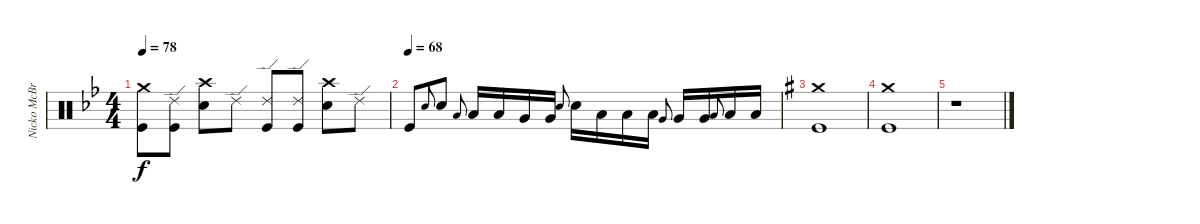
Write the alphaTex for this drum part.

\track ("Nicko McBrain (Drums)" "Nicko McBr") {instrument percussion}
\staff {score}
\articulation defaults
\ts (4 4)
\tempo 78
\clef neutral
\ks gminor
("Crash medium (hit)" "Kick (hit)").8{dy f} ("Ride (edge) 2" "Kick (hit)").8 ("Crash high (hit)" "Snare (hit) 2").8 "Ride (edge) 2".8 ("Ride (edge) 2" "Kick (hit)").8 ("Ride (edge) 2" "Kick (hit)").8 ("Crash high (hit)" "Snare (hit) 2").8 "Ride (edge) 2".8 |
\tempo (68)
"Kick (hit)".8 "Snare (hit) 2".8{gr onbeat} "Snare (hit) 2".8 "Low Tom (hit)".8{gr onbeat} "Low Tom (hit)".16 "Low Tom (hit)".16 "Very Low Tom (hit)".16 "Very Low Tom (hit)".16 "Snare (hit) 2".8{gr onbeat} "Snare (hit) 2".16 "Low Tom (hit)".16 "Low Tom (hit)".16 "Low Tom (hit)".16 "Very Low Tom (hit)".8{gr onbeat} "Very Low Tom (hit)".16 "Very Low Tom (hit)".16 "Low Floor Tom (hit)".8{gr onbeat} "Low Floor Tom (hit)".16 "Low Floor Tom (hit)".16 |
\ks eminor
("Crash medium (hit)" "Kick (hit)").1 |
("Crash medium (hit)" "Kick (hit)").1 |
r.1
